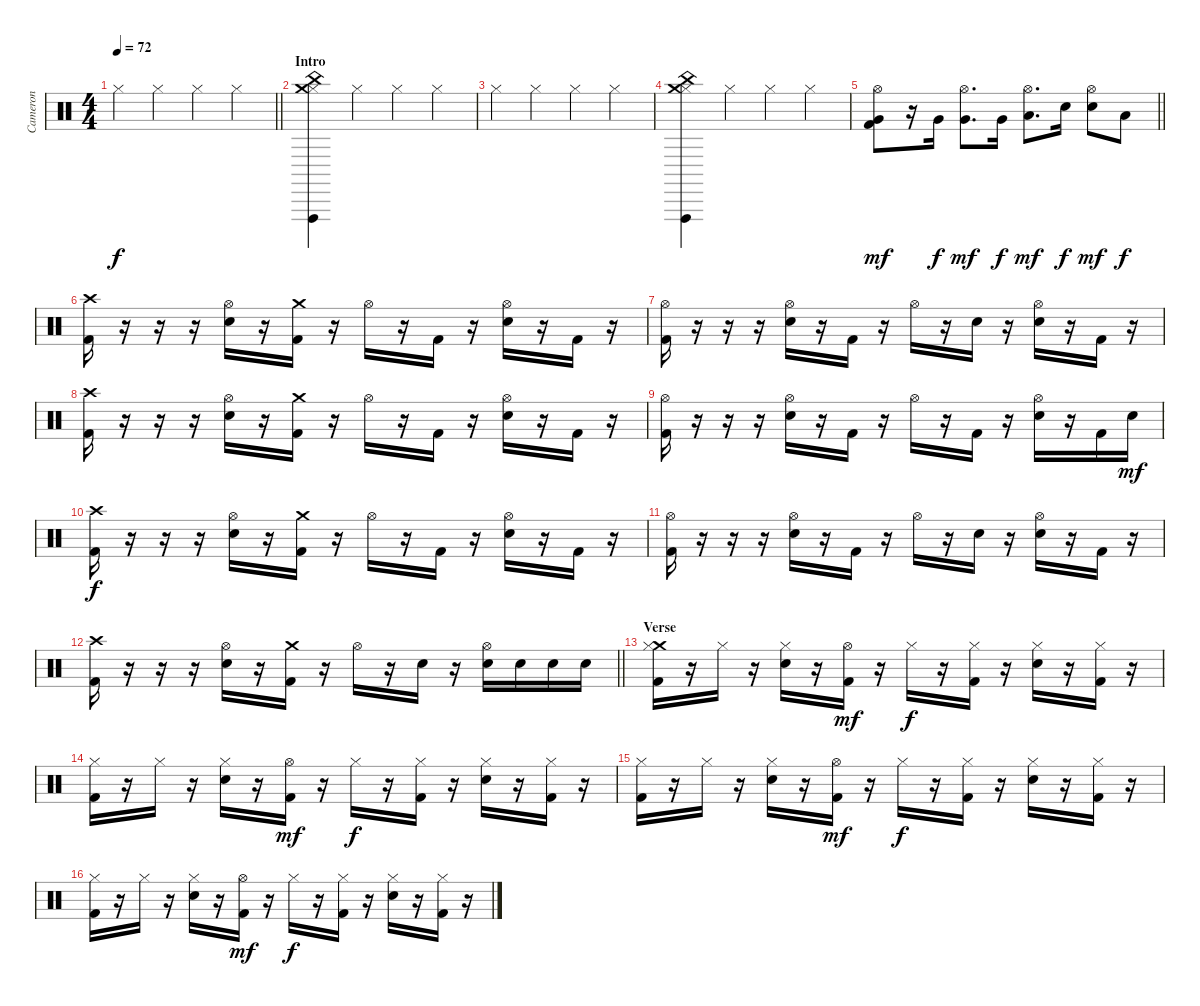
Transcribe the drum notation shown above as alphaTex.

\track ("Cameron" "Cameron") {instrument percussion}
\staff {score}
\articulation defaults
\ts (4 4)
\tempo 72
\clef neutral
\barLineRight lightlight
\ks c "Hi-Hat (closed)".4{dy f} "Hi-Hat (closed)".4 "Hi-Hat (closed)".4 "Hi-Hat (closed)".4
|
\section ("" "Intro")
("Hi-Hat (closed)" "Vibraslap (hit)" "China (hit)" "Crash medium (hit)").4 "Hi-Hat (closed)".4 "Hi-Hat (closed)".4 "Hi-Hat (closed)".4 |
"Hi-Hat (closed)".4 "Hi-Hat (closed)".4 "Hi-Hat (closed)".4 "Hi-Hat (closed)".4 |
("Hi-Hat (closed)" "Vibraslap (hit)" "China (hit)" "Crash medium (hit)").4 "Hi-Hat (closed)".4 "Hi-Hat (closed)".4 "Hi-Hat (closed)".4 |
\barLineRight lightlight
("Hi-Hat (open)" "Very Low Tom (hit)" "Kick (hit) 2").8{dy mf} r.16 "Very Low Tom (hit)".16{dy f} ("Hi-Hat (open)" "Very Low Tom (hit)").8{d dy mf} "Very Low Tom (hit)".16{dy f} ("Hi-Hat (open)" "Low Floor Tom (hit)").8{d dy mf} "Electric Snare (hit)".16{dy f} ("Hi-Hat (open)" "Electric Snare (hit)").8{dy mf} "Low Tom (hit)".8{dy f} |
\section ("" "")
("Crash high (hit)" "Kick (hit) 2").16 r.16 r.16 r.16 ("Hi-Hat (open)" "Electric Snare (hit)").16 r.16 ("Crash medium (hit)" "Kick (hit) 2").16 r.16 "Hi-Hat (open)".16 r.16 "Kick (hit) 2".16 r.16 ("Hi-Hat (open)" "Electric Snare (hit)").16 r.16 "Kick (hit) 2".16 r.16 |
("Hi-Hat (open)" "Kick (hit) 2").16 r.16 r.16 r.16 ("Hi-Hat (open)" "Electric Snare (hit)").16 r.16 "Kick (hit) 2".16 r.16 "Hi-Hat (open)".16 r.16 "Electric Snare (hit)".16 r.16 ("Hi-Hat (open)" "Electric Snare (hit)").16 r.16 "Kick (hit) 2".16 r.16 |
("Crash high (hit)" "Kick (hit) 2").16 r.16 r.16 r.16 ("Hi-Hat (open)" "Electric Snare (hit)").16 r.16 ("Crash medium (hit)" "Kick (hit) 2").16 r.16 "Hi-Hat (open)".16 r.16 "Kick (hit) 2".16 r.16 ("Hi-Hat (open)" "Electric Snare (hit)").16 r.16 "Kick (hit) 2".16 r.16 |
("Hi-Hat (open)" "Kick (hit) 2").16 r.16 r.16 r.16 ("Hi-Hat (open)" "Electric Snare (hit)").16 r.16 "Kick (hit) 2".16 r.16 "Hi-Hat (open)".16 r.16 "Kick (hit) 2".16 r.16 ("Hi-Hat (open)" "Electric Snare (hit)").16 r.16 "Kick (hit) 2".16 "Electric Snare (hit)".16{dy mf} |
("Crash high (hit)" "Kick (hit) 2").16{dy f} r.16 r.16 r.16 ("Hi-Hat (open)" "Electric Snare (hit)").16 r.16 ("Crash medium (hit)" "Kick (hit) 2").16 r.16 "Hi-Hat (open)".16 r.16 "Kick (hit) 2".16 r.16 ("Hi-Hat (open)" "Electric Snare (hit)").16 r.16 "Kick (hit) 2".16 r.16 |
("Hi-Hat (open)" "Kick (hit) 2").16 r.16 r.16 r.16 ("Hi-Hat (open)" "Electric Snare (hit)").16 r.16 "Kick (hit) 2".16 r.16 "Hi-Hat (open)".16 r.16 "Electric Snare (hit)".16 r.16 ("Hi-Hat (open)" "Electric Snare (hit)").16 r.16 "Kick (hit) 2".16 r.16 |
\barLineRight lightlight
("Crash high (hit)" "Kick (hit) 2").16 r.16 r.16 r.16 ("Hi-Hat (open)" "Electric Snare (hit)").16 r.16 ("Crash medium (hit)" "Kick (hit) 2").16 r.16 "Hi-Hat (open)".16 r.16 "Electric Snare (hit)".16 r.16 ("Hi-Hat (open)" "Electric Snare (hit)").16 "Electric Snare (hit)".16 "Electric Snare (hit)".16 "Electric Snare (hit)".16 |
\section ("" "Verse")
("Crash medium (hit)" "Hi-Hat (closed)" "Kick (hit) 2").16 r.16 "Hi-Hat (closed)".16 r.16 ("Hi-Hat (closed)" "Electric Snare (hit)").16 r.16 ("Hi-Hat (open)" "Kick (hit) 2").16{dy mf} r.16 "Hi-Hat (closed)".16{dy f} r.16 ("Hi-Hat (closed)" "Kick (hit) 2").16 r.16 ("Hi-Hat (closed)" "Electric Snare (hit)").16 r.16 ("Hi-Hat (closed)" "Kick (hit) 2").16 r.16 |
("Hi-Hat (closed)" "Kick (hit) 2").16 r.16 "Hi-Hat (closed)".16 r.16 ("Hi-Hat (closed)" "Electric Snare (hit)").16 r.16 ("Hi-Hat (open)" "Kick (hit) 2").16{dy mf} r.16 "Hi-Hat (closed)".16{dy f} r.16 ("Hi-Hat (closed)" "Kick (hit) 2").16 r.16 ("Hi-Hat (closed)" "Electric Snare (hit)").16 r.16 ("Hi-Hat (closed)" "Kick (hit) 2").16 r.16 |
("Hi-Hat (closed)" "Kick (hit) 2").16 r.16 "Hi-Hat (closed)".16 r.16 ("Hi-Hat (closed)" "Electric Snare (hit)").16 r.16 ("Hi-Hat (open)" "Kick (hit) 2").16{dy mf} r.16 "Hi-Hat (closed)".16{dy f} r.16 ("Hi-Hat (closed)" "Kick (hit) 2").16 r.16 ("Hi-Hat (closed)" "Electric Snare (hit)").16 r.16 ("Hi-Hat (closed)" "Kick (hit) 2").16 r.16 |
("Hi-Hat (closed)" "Kick (hit) 2").16 r.16 "Hi-Hat (closed)".16 r.16 ("Hi-Hat (closed)" "Electric Snare (hit)").16 r.16 ("Hi-Hat (open)" "Kick (hit) 2").16{dy mf} r.16 "Hi-Hat (closed)".16{dy f} r.16 ("Hi-Hat (closed)" "Kick (hit) 2").16 r.16 ("Hi-Hat (closed)" "Electric Snare (hit)").16 r.16 ("Hi-Hat (closed)" "Kick (hit) 2").16 r.16
